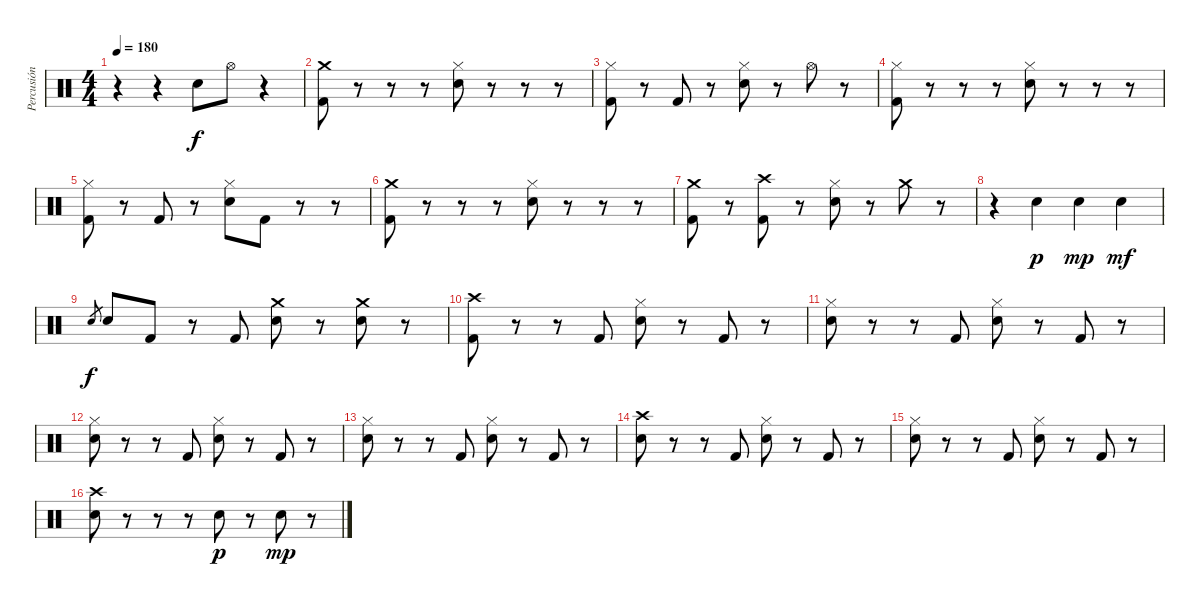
\track ("Percusión" "Percusión") {instrument percussion}
\staff {score}
\articulation defaults
\ts (4 4)
\tempo 180
\clef neutral
\ks c
r.4{dy f} r.4 "Snare (hit) 2".8 "Hi-Hat (open)".8 r.4 |
("Crash medium (hit)" "Kick (hit) 2").8 r.8 r.8 r.8 ("Hi-Hat (closed)" "Snare (hit) 2").8 r.8 r.8 r.8 |
("Hi-Hat (closed)" "Kick (hit) 2").8 r.8 "Kick (hit) 2".8 r.8 ("Hi-Hat (closed)" "Snare (hit) 2").8 r.8 "Hi-Hat (open)".8 r.8 |
("Hi-Hat (closed)" "Kick (hit) 2").8 r.8 r.8 r.8 ("Hi-Hat (closed)" "Snare (hit) 2").8 r.8 r.8 r.8 |
("Hi-Hat (closed)" "Kick (hit) 2").8 r.8 "Kick (hit) 2".8 r.8 ("Hi-Hat (closed)" "Snare (hit) 2").8 "Kick (hit) 2".8 r.8 r.8 |
("Crash medium (hit)" "Kick (hit) 2").8 r.8 r.8 r.8 ("Hi-Hat (closed)" "Snare (hit) 2").8 r.8 r.8 r.8 |
("Crash medium (hit)" "Kick (hit) 2").8 r.8 ("Crash high (hit)" "Kick (hit) 2").8 r.8 ("Hi-Hat (closed)" "Snare (hit) 2").8 r.8 "Crash medium (hit)".8 r.8 |
r.4 "Snare (hit) 2".4{dy p} "Snare (hit) 2".4{dy mp} "Snare (hit) 2".4{dy mf} |
"Snare (hit) 2".8{gr dy f} "Snare (hit) 2".8 "Kick (hit) 2".8 r.8 "Kick (hit) 2".8 ("Crash medium (hit)" "Snare (hit) 2").8 r.8 ("Crash medium (hit)" "Snare (hit) 2").8 r.8 |
("Crash high (hit)" "Kick (hit) 2").8 r.8 r.8 "Kick (hit) 2".8 ("Hi-Hat (closed)" "Snare (hit) 2").8 r.8 "Kick (hit) 2".8 r.8 |
("Hi-Hat (closed)" "Snare (hit) 2").8 r.8 r.8 "Kick (hit) 2".8 ("Hi-Hat (closed)" "Snare (hit) 2").8 r.8 "Kick (hit) 2".8 r.8 |
("Hi-Hat (closed)" "Snare (hit) 2").8 r.8 r.8 "Kick (hit) 2".8 ("Hi-Hat (closed)" "Snare (hit) 2").8 r.8 "Kick (hit) 2".8 r.8 |
("Hi-Hat (closed)" "Snare (hit) 2").8 r.8 r.8 "Kick (hit) 2".8 ("Hi-Hat (closed)" "Snare (hit) 2").8 r.8 "Kick (hit) 2".8 r.8 |
("Crash high (hit)" "Snare (hit) 2").8 r.8 r.8 "Kick (hit) 2".8 ("Hi-Hat (closed)" "Snare (hit) 2").8 r.8 "Kick (hit) 2".8 r.8 |
("Hi-Hat (closed)" "Snare (hit) 2").8 r.8 r.8 "Kick (hit) 2".8 ("Hi-Hat (closed)" "Snare (hit) 2").8 r.8 "Kick (hit) 2".8 r.8 |
("Crash high (hit)" "Snare (hit) 2").8 r.8 r.8 r.8 "Snare (hit) 2".8{dy p} r.8 "Snare (hit) 2".8{dy mp} r.8
